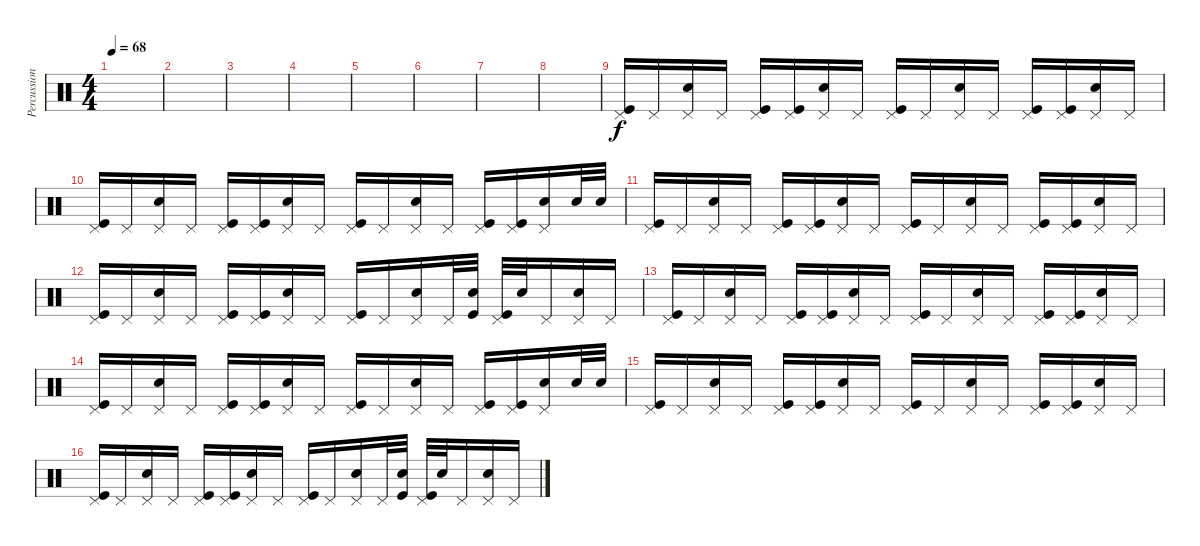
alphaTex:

\track ("Percussion" "Percussion") {instrument percussion}
\staff {score}
\articulation defaults
\ts (4 4)
\tempo 68
\clef neutral
\ks c
|
|
|
|
|
|
|
|
("Pedal Hi-Hat (hit)" "Kick (hit)").16 "Pedal Hi-Hat (hit)".16 ("Pedal Hi-Hat (hit)" "Electric Snare (hit)").16 "Pedal Hi-Hat (hit)".16 ("Pedal Hi-Hat (hit)" "Kick (hit)").16 ("Pedal Hi-Hat (hit)" "Kick (hit)").16 ("Pedal Hi-Hat (hit)" "Electric Snare (hit)").16 "Pedal Hi-Hat (hit)".16 ("Pedal Hi-Hat (hit)" "Kick (hit)").16 "Pedal Hi-Hat (hit)".16 ("Pedal Hi-Hat (hit)" "Electric Snare (hit)").16 "Pedal Hi-Hat (hit)".16 ("Pedal Hi-Hat (hit)" "Kick (hit)").16 ("Pedal Hi-Hat (hit)" "Kick (hit)").16 ("Pedal Hi-Hat (hit)" "Electric Snare (hit)").16 "Pedal Hi-Hat (hit)".16 |
("Pedal Hi-Hat (hit)" "Kick (hit)").16 "Pedal Hi-Hat (hit)".16 ("Pedal Hi-Hat (hit)" "Electric Snare (hit)").16 "Pedal Hi-Hat (hit)".16 ("Pedal Hi-Hat (hit)" "Kick (hit)").16 ("Pedal Hi-Hat (hit)" "Kick (hit)").16 ("Pedal Hi-Hat (hit)" "Electric Snare (hit)").16 "Pedal Hi-Hat (hit)".16 ("Pedal Hi-Hat (hit)" "Kick (hit)").16 "Pedal Hi-Hat (hit)".16 ("Pedal Hi-Hat (hit)" "Electric Snare (hit)").16 "Pedal Hi-Hat (hit)".16 ("Pedal Hi-Hat (hit)" "Kick (hit)").16 ("Pedal Hi-Hat (hit)" "Kick (hit)").16 ("Pedal Hi-Hat (hit)" "Electric Snare (hit)").16 "Electric Snare (hit)".32 "Electric Snare (hit)".32 |
("Pedal Hi-Hat (hit)" "Kick (hit)").16 "Pedal Hi-Hat (hit)".16 ("Pedal Hi-Hat (hit)" "Electric Snare (hit)").16 "Pedal Hi-Hat (hit)".16 ("Pedal Hi-Hat (hit)" "Kick (hit)").16 ("Pedal Hi-Hat (hit)" "Kick (hit)").16 ("Pedal Hi-Hat (hit)" "Electric Snare (hit)").16 "Pedal Hi-Hat (hit)".16 ("Pedal Hi-Hat (hit)" "Kick (hit)").16 "Pedal Hi-Hat (hit)".16 ("Pedal Hi-Hat (hit)" "Electric Snare (hit)").16 "Pedal Hi-Hat (hit)".16 ("Pedal Hi-Hat (hit)" "Kick (hit)").16 ("Pedal Hi-Hat (hit)" "Kick (hit)").16 ("Pedal Hi-Hat (hit)" "Electric Snare (hit)").16 "Pedal Hi-Hat (hit)".16 |
("Pedal Hi-Hat (hit)" "Kick (hit)").16 "Pedal Hi-Hat (hit)".16 ("Pedal Hi-Hat (hit)" "Electric Snare (hit)").16 "Pedal Hi-Hat (hit)".16 ("Pedal Hi-Hat (hit)" "Kick (hit)").16 ("Pedal Hi-Hat (hit)" "Kick (hit)").16 ("Pedal Hi-Hat (hit)" "Electric Snare (hit)").16 "Pedal Hi-Hat (hit)".16 ("Pedal Hi-Hat (hit)" "Kick (hit)").16 "Pedal Hi-Hat (hit)".16 ("Pedal Hi-Hat (hit)" "Electric Snare (hit)").16 "Pedal Hi-Hat (hit)".32 ("Electric Snare (hit)" "Kick (hit)").32 ("Pedal Hi-Hat (hit)" "Kick (hit)").32 "Electric Snare (hit)".32 "Pedal Hi-Hat (hit)".16 ("Pedal Hi-Hat (hit)" "Electric Snare (hit)").16 "Pedal Hi-Hat (hit)".16 |
("Pedal Hi-Hat (hit)" "Kick (hit)").16 "Pedal Hi-Hat (hit)".16 ("Pedal Hi-Hat (hit)" "Electric Snare (hit)").16 "Pedal Hi-Hat (hit)".16 ("Pedal Hi-Hat (hit)" "Kick (hit)").16 ("Pedal Hi-Hat (hit)" "Kick (hit)").16 ("Pedal Hi-Hat (hit)" "Electric Snare (hit)").16 "Pedal Hi-Hat (hit)".16 ("Pedal Hi-Hat (hit)" "Kick (hit)").16 "Pedal Hi-Hat (hit)".16 ("Pedal Hi-Hat (hit)" "Electric Snare (hit)").16 "Pedal Hi-Hat (hit)".16 ("Pedal Hi-Hat (hit)" "Kick (hit)").16 ("Pedal Hi-Hat (hit)" "Kick (hit)").16 ("Pedal Hi-Hat (hit)" "Electric Snare (hit)").16 "Pedal Hi-Hat (hit)".16 |
("Pedal Hi-Hat (hit)" "Kick (hit)").16 "Pedal Hi-Hat (hit)".16 ("Pedal Hi-Hat (hit)" "Electric Snare (hit)").16 "Pedal Hi-Hat (hit)".16 ("Pedal Hi-Hat (hit)" "Kick (hit)").16 ("Pedal Hi-Hat (hit)" "Kick (hit)").16 ("Pedal Hi-Hat (hit)" "Electric Snare (hit)").16 "Pedal Hi-Hat (hit)".16 ("Pedal Hi-Hat (hit)" "Kick (hit)").16 "Pedal Hi-Hat (hit)".16 ("Pedal Hi-Hat (hit)" "Electric Snare (hit)").16 "Pedal Hi-Hat (hit)".16 ("Pedal Hi-Hat (hit)" "Kick (hit)").16 ("Pedal Hi-Hat (hit)" "Kick (hit)").16 ("Pedal Hi-Hat (hit)" "Electric Snare (hit)").16 "Electric Snare (hit)".32 "Electric Snare (hit)".32 |
("Pedal Hi-Hat (hit)" "Kick (hit)").16 "Pedal Hi-Hat (hit)".16 ("Pedal Hi-Hat (hit)" "Electric Snare (hit)").16 "Pedal Hi-Hat (hit)".16 ("Pedal Hi-Hat (hit)" "Kick (hit)").16 ("Pedal Hi-Hat (hit)" "Kick (hit)").16 ("Pedal Hi-Hat (hit)" "Electric Snare (hit)").16 "Pedal Hi-Hat (hit)".16 ("Pedal Hi-Hat (hit)" "Kick (hit)").16 "Pedal Hi-Hat (hit)".16 ("Pedal Hi-Hat (hit)" "Electric Snare (hit)").16 "Pedal Hi-Hat (hit)".16 ("Pedal Hi-Hat (hit)" "Kick (hit)").16 ("Pedal Hi-Hat (hit)" "Kick (hit)").16 ("Pedal Hi-Hat (hit)" "Electric Snare (hit)").16 "Pedal Hi-Hat (hit)".16 |
("Pedal Hi-Hat (hit)" "Kick (hit)").16 "Pedal Hi-Hat (hit)".16 ("Pedal Hi-Hat (hit)" "Electric Snare (hit)").16 "Pedal Hi-Hat (hit)".16 ("Pedal Hi-Hat (hit)" "Kick (hit)").16 ("Pedal Hi-Hat (hit)" "Kick (hit)").16 ("Pedal Hi-Hat (hit)" "Electric Snare (hit)").16 "Pedal Hi-Hat (hit)".16 ("Pedal Hi-Hat (hit)" "Kick (hit)").16 "Pedal Hi-Hat (hit)".16 ("Pedal Hi-Hat (hit)" "Electric Snare (hit)").16 "Pedal Hi-Hat (hit)".32 ("Electric Snare (hit)" "Kick (hit)").32 ("Pedal Hi-Hat (hit)" "Kick (hit)").32 "Electric Snare (hit)".32 "Pedal Hi-Hat (hit)".16 ("Pedal Hi-Hat (hit)" "Electric Snare (hit)").16 "Pedal Hi-Hat (hit)".16
